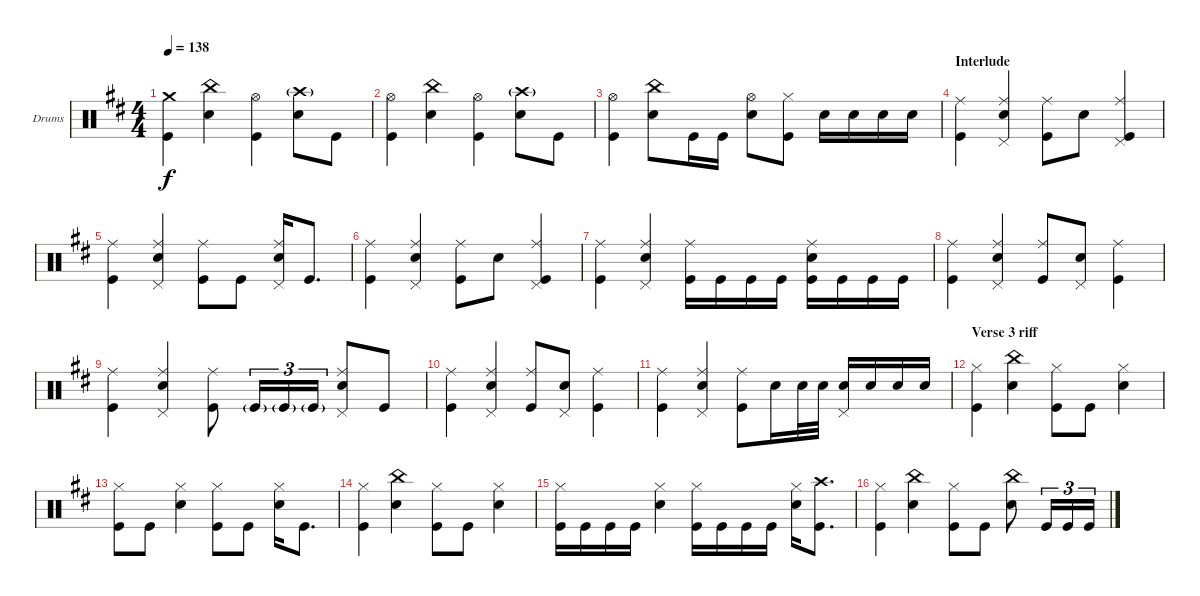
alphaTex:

\defaultSystemsLayout 4
\bracketExtendMode groupsimilarinstruments
\firstSystemTrackNameOrientation horizontal
\otherSystemsTrackNameOrientation horizontal
\track ("Drumkit" "Drums") {instrument percussion}
\staff {score}
\articulation defaults
\ts (4 4)
\tempo 138
\clef neutral
\ks d
("Kick (hit)" "Crash medium (hit)").4{dy f} ("Snare (hit) 2" "China (hit)").4 ("Kick (hit)" "Hi-Hat (open)").4 ("Snare (hit) 2" "Crash high (hit)"{g}).8 "Kick (hit)".8 |
("Kick (hit)" "Hi-Hat (open)").4 ("Snare (hit) 2" "China (hit)").4 ("Kick (hit)" "Hi-Hat (open)").4 ("Snare (hit) 2" "Crash high (hit)"{g}).8 "Kick (hit)".8 |
("Kick (hit)" "Hi-Hat (open)").4 ("Snare (hit) 2" "China (hit)").8 "Kick (hit)".16 "Kick (hit)".16 ("Snare (hit) 2" "Hi-Hat (open)").8 ("Kick (hit)" "Hi-Hat (closed)").8 "Snare (hit) 2".16 "Snare (hit) 2".16 "Snare (hit) 2".16 "Snare (hit) 2".16 |
\section ("" "Interlude")
("Kick (hit)" "Ride (middle)").4 ("Ride (middle)" "Snare (hit) 2" "Pedal Hi-Hat (hit)").4 ("Kick (hit)" "Ride (middle)").8 "Snare (hit) 2".8 ("Kick (hit)" "Ride (middle)" "Pedal Hi-Hat (hit)").4 |
("Kick (hit)" "Ride (middle)").4 ("Ride (middle)" "Snare (hit) 2" "Pedal Hi-Hat (hit)").4 ("Kick (hit)" "Ride (middle)").8 "Kick (hit)".8 ("Snare (hit) 2" "Ride (middle)" "Pedal Hi-Hat (hit)").16 "Kick (hit)".8{d} |
("Kick (hit)" "Ride (middle)").4 ("Ride (middle)" "Snare (hit) 2" "Pedal Hi-Hat (hit)").4 ("Kick (hit)" "Ride (middle)").8 "Snare (hit) 2".8 ("Kick (hit)" "Ride (middle)" "Pedal Hi-Hat (hit)").4 |
("Kick (hit)" "Ride (middle)").4 ("Ride (middle)" "Snare (hit) 2" "Pedal Hi-Hat (hit)").4 ("Kick (hit)" "Ride (middle)").16 "Kick (hit)".16 "Kick (hit)".16 "Kick (hit)".16 ("Snare (hit) 2" "Kick (hit)" "Ride (middle)").16 "Kick (hit)".16 "Kick (hit)".16 "Kick (hit)".16 |
("Kick (hit)" "Ride (middle)").4 ("Ride (middle)" "Snare (hit) 2" "Pedal Hi-Hat (hit)").4 ("Kick (hit)" "Ride (middle)").8 ("Snare (hit) 2" "Pedal Hi-Hat (hit)").8 ("Kick (hit)" "Ride (middle)").4 |
("Kick (hit)" "Ride (middle)").4 ("Ride (middle)" "Snare (hit) 2" "Pedal Hi-Hat (hit)").4 ("Kick (hit)" "Ride (middle)").8 "Kick (hit)"{g}.16{tu (3 2)} "Kick (hit)"{g}.16{tu (3 2)} "Kick (hit)"{g}.16{tu (3 2)} ("Snare (hit) 2" "Ride (middle)" "Pedal Hi-Hat (hit)").8 "Kick (hit)".8 |
("Kick (hit)" "Ride (middle)").4 ("Ride (middle)" "Snare (hit) 2" "Pedal Hi-Hat (hit)").4 ("Kick (hit)" "Ride (middle)").8 ("Snare (hit) 2" "Pedal Hi-Hat (hit)").8 ("Kick (hit)" "Ride (middle)").4 |
("Kick (hit)" "Ride (middle)").4 ("Ride (middle)" "Snare (hit) 2" "Pedal Hi-Hat (hit)").4 ("Kick (hit)" "Ride (middle)").8 "Snare (hit) 2".16 "Snare (hit) 2".32 "Snare (hit) 2".32 ("Snare (hit) 2" "Pedal Hi-Hat (hit)").16 "Snare (hit) 2".16 "Snare (hit) 2".16 "Snare (hit) 2".16 |
\section ("" "Verse 3 riff")
("Kick (hit)" "Hi-Hat (closed)").4 ("Snare (hit) 2" "China (hit)").4 ("Hi-Hat (closed)" "Kick (hit)").8 "Kick (hit)".8 ("Snare (hit) 2" "Hi-Hat (closed)").4 |
("Hi-Hat (closed)" "Kick (hit)").8 "Kick (hit)".8 ("Snare (hit) 2" "Hi-Hat (closed)").4 ("Hi-Hat (closed)" "Kick (hit)").8 "Kick (hit)".8 ("Snare (hit) 2" "Hi-Hat (closed)").16 "Kick (hit)".8{d} |
("Kick (hit)" "Hi-Hat (closed)").4 ("Snare (hit) 2" "China (hit)").4 ("Hi-Hat (closed)" "Kick (hit)").8 "Kick (hit)".8 ("Snare (hit) 2" "Hi-Hat (closed)").4 |
("Hi-Hat (closed)" "Kick (hit)").16 "Kick (hit)".16 "Kick (hit)".16 "Kick (hit)".16 ("Snare (hit) 2" "Hi-Hat (closed)").4 ("Hi-Hat (closed)" "Kick (hit)").16 "Kick (hit)".16 "Kick (hit)".16 "Kick (hit)".16 ("Snare (hit) 2" "Hi-Hat (closed)").16 ("Kick (hit)" "Crash high (hit)").8{d} |
("Kick (hit)" "Hi-Hat (closed)").4 ("Snare (hit) 2" "China (hit)").4 ("Hi-Hat (closed)" "Kick (hit)").8 "Kick (hit)".8 ("Snare (hit) 2" "China (hit)").8 "Kick (hit)".16{tu (3 2)} "Kick (hit)".16{tu (3 2)} "Kick (hit)".16{tu (3 2)}
